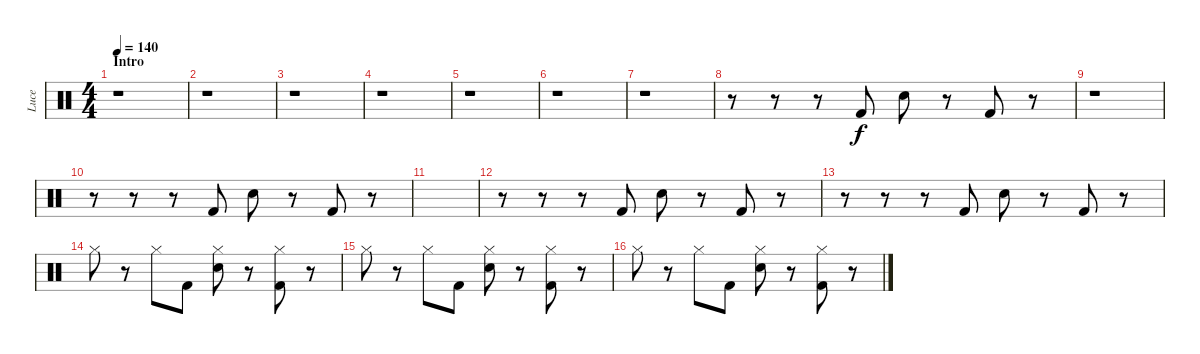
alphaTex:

\track ("Luce" "Luce") {instrument percussion}
\staff {score}
\articulation defaults
\ts (4 4)
\section ("" "Intro")
\tempo 140
\clef neutral
\ks c
r.1{dy f} |
r.1 |
r.1 |
r.1 |
r.1 |
r.1 |
r.1 |
r.8 r.8 r.8 "Kick (hit) 2".8 "Hand Clap (hit)".8 r.8 "Kick (hit) 2".8 r.8 |
r.1 |
r.8 r.8 r.8 "Kick (hit) 2".8 "Hand Clap (hit)".8 r.8 "Kick (hit) 2".8 r.8 |
|
r.8 r.8 r.8 "Kick (hit) 2".8 "Hand Clap (hit)".8 r.8 "Kick (hit) 2".8 r.8 |
r.8 r.8 r.8 "Kick (hit) 2".8 "Hand Clap (hit)".8 r.8 "Kick (hit) 2".8 r.8 |
"Hi-Hat (closed)".8 r.8 "Hi-Hat (closed)".8 "Kick (hit) 2".8 ("Hi-Hat (closed)" "Hand Clap (hit)").8 r.8 ("Hi-Hat (closed)" "Kick (hit) 2").8 r.8 |
"Hi-Hat (closed)".8 r.8 "Hi-Hat (closed)".8 "Kick (hit) 2".8 ("Hi-Hat (closed)" "Hand Clap (hit)").8 r.8 ("Hi-Hat (closed)" "Kick (hit) 2").8 r.8 |
"Hi-Hat (closed)".8 r.8 "Hi-Hat (closed)".8 "Kick (hit) 2".8 ("Hi-Hat (closed)" "Hand Clap (hit)").8 r.8 ("Hi-Hat (closed)" "Kick (hit) 2").8 r.8
